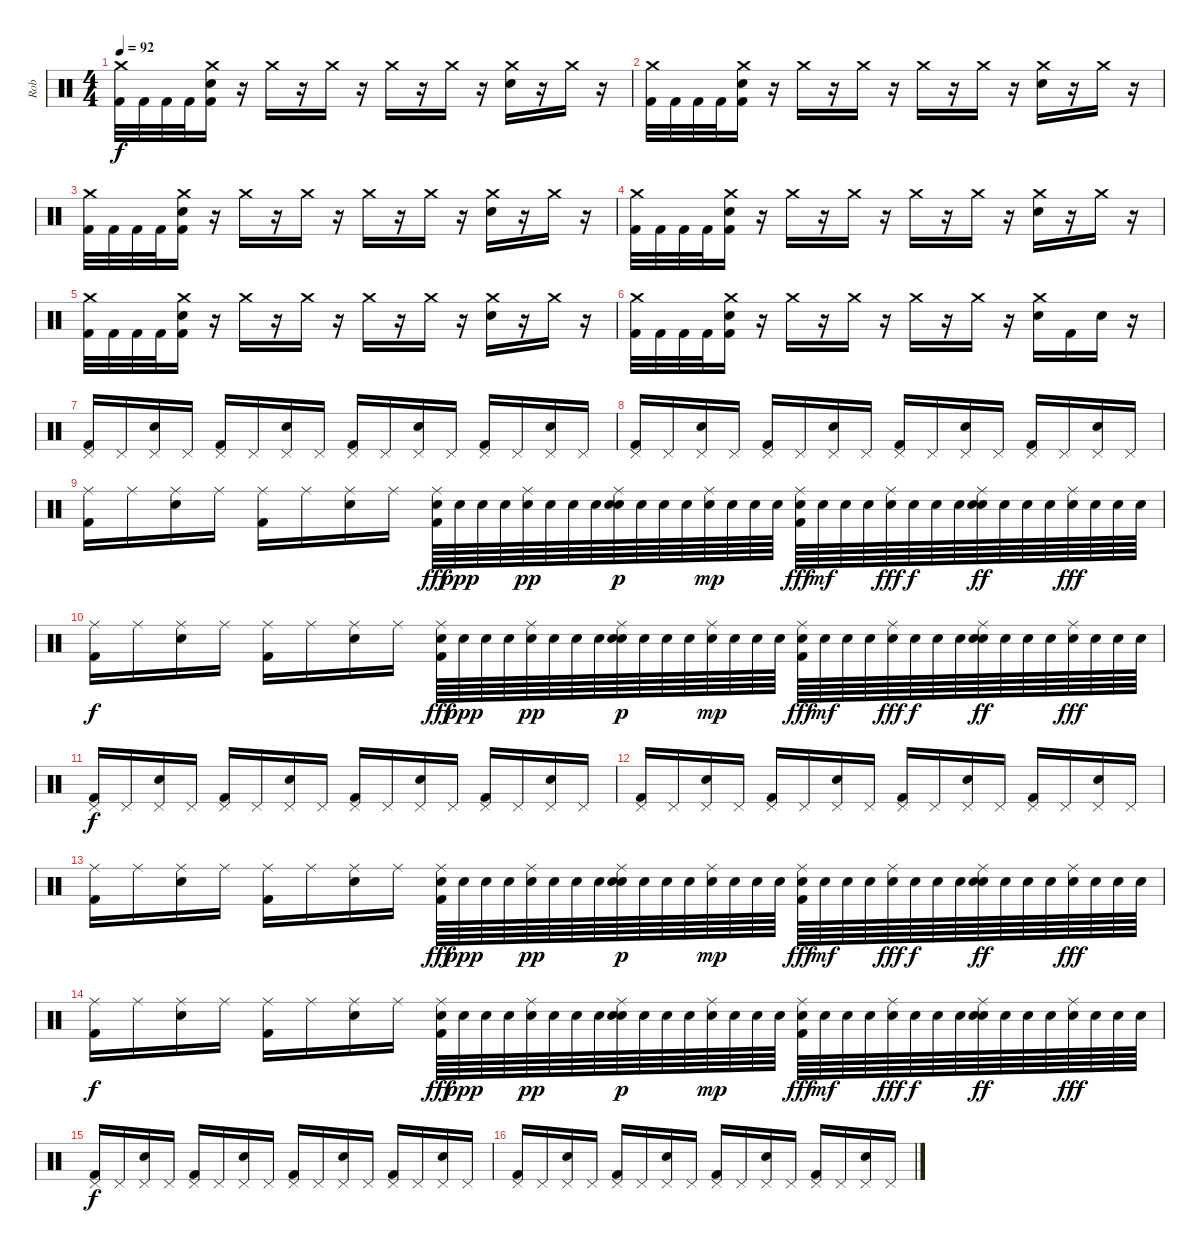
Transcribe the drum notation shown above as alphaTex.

\track ("Rob" "Rob") {instrument percussion}
\staff {score}
\articulation defaults
\ts (4 4)
\tempo 92
\clef neutral
\ks c
("Crash medium (hit)" "Kick (hit) 2").32{dy f} "Kick (hit) 2".32 "Kick (hit) 2".32 "Kick (hit) 2".32 ("Crash medium (hit)" "Electric Snare (hit)" "Kick (hit) 2").16 r.16 "Crash medium (hit)".16 r.16 "Crash medium (hit)".16 r.16 "Crash medium (hit)".16 r.16 "Crash medium (hit)".16 r.16 ("Crash medium (hit)" "Electric Snare (hit)").16 r.16 "Crash medium (hit)".16 r.16 |
("Crash medium (hit)" "Kick (hit) 2").32 "Kick (hit) 2".32 "Kick (hit) 2".32 "Kick (hit) 2".32 ("Crash medium (hit)" "Electric Snare (hit)" "Kick (hit) 2").16 r.16 "Crash medium (hit)".16 r.16 "Crash medium (hit)".16 r.16 "Crash medium (hit)".16 r.16 "Crash medium (hit)".16 r.16 ("Crash medium (hit)" "Electric Snare (hit)").16 r.16 "Crash medium (hit)".16 r.16 |
("Crash medium (hit)" "Kick (hit) 2").32 "Kick (hit) 2".32 "Kick (hit) 2".32 "Kick (hit) 2".32 ("Crash medium (hit)" "Electric Snare (hit)" "Kick (hit) 2").16 r.16 "Crash medium (hit)".16 r.16 "Crash medium (hit)".16 r.16 "Crash medium (hit)".16 r.16 "Crash medium (hit)".16 r.16 ("Crash medium (hit)" "Electric Snare (hit)").16 r.16 "Crash medium (hit)".16 r.16 |
("Crash medium (hit)" "Kick (hit) 2").32 "Kick (hit) 2".32 "Kick (hit) 2".32 "Kick (hit) 2".32 ("Crash medium (hit)" "Electric Snare (hit)" "Kick (hit) 2").16 r.16 "Crash medium (hit)".16 r.16 "Crash medium (hit)".16 r.16 "Crash medium (hit)".16 r.16 "Crash medium (hit)".16 r.16 ("Crash medium (hit)" "Electric Snare (hit)").16 r.16 "Crash medium (hit)".16 r.16 |
("Crash medium (hit)" "Kick (hit) 2").32 "Kick (hit) 2".32 "Kick (hit) 2".32 "Kick (hit) 2".32 ("Crash medium (hit)" "Electric Snare (hit)" "Kick (hit) 2").16 r.16 "Crash medium (hit)".16 r.16 "Crash medium (hit)".16 r.16 "Crash medium (hit)".16 r.16 "Crash medium (hit)".16 r.16 ("Crash medium (hit)" "Electric Snare (hit)").16 r.16 "Crash medium (hit)".16 r.16 |
("Crash medium (hit)" "Kick (hit) 2").32 "Kick (hit) 2".32 "Kick (hit) 2".32 "Kick (hit) 2".32 ("Crash medium (hit)" "Electric Snare (hit)" "Kick (hit) 2").16 r.16 "Crash medium (hit)".16 r.16 "Crash medium (hit)".16 r.16 "Crash medium (hit)".16 r.16 "Crash medium (hit)".16 r.16 ("Crash medium (hit)" "Electric Snare (hit)").16 "Kick (hit) 2".16 "Electric Snare (hit)".16 r.16 |
("Pedal Hi-Hat (hit)" "Kick (hit) 2").16 "Pedal Hi-Hat (hit)".16 ("Pedal Hi-Hat (hit)" "Electric Snare (hit)").16 "Pedal Hi-Hat (hit)".16 ("Pedal Hi-Hat (hit)" "Kick (hit) 2").16 "Pedal Hi-Hat (hit)".16 ("Pedal Hi-Hat (hit)" "Electric Snare (hit)").16 "Pedal Hi-Hat (hit)".16 ("Pedal Hi-Hat (hit)" "Kick (hit) 2").16 "Pedal Hi-Hat (hit)".16 ("Pedal Hi-Hat (hit)" "Electric Snare (hit)").16 "Pedal Hi-Hat (hit)".16 ("Pedal Hi-Hat (hit)" "Kick (hit) 2").16 "Pedal Hi-Hat (hit)".16 ("Pedal Hi-Hat (hit)" "Electric Snare (hit)").16 "Pedal Hi-Hat (hit)".16 |
("Pedal Hi-Hat (hit)" "Kick (hit) 2").16 "Pedal Hi-Hat (hit)".16 ("Pedal Hi-Hat (hit)" "Electric Snare (hit)").16 "Pedal Hi-Hat (hit)".16 ("Pedal Hi-Hat (hit)" "Kick (hit) 2").16 "Pedal Hi-Hat (hit)".16 ("Pedal Hi-Hat (hit)" "Electric Snare (hit)").16 "Pedal Hi-Hat (hit)".16 ("Pedal Hi-Hat (hit)" "Kick (hit) 2").16 "Pedal Hi-Hat (hit)".16 ("Pedal Hi-Hat (hit)" "Electric Snare (hit)").16 "Pedal Hi-Hat (hit)".16 ("Pedal Hi-Hat (hit)" "Kick (hit) 2").16 "Pedal Hi-Hat (hit)".16 ("Pedal Hi-Hat (hit)" "Electric Snare (hit)").16 "Pedal Hi-Hat (hit)".16 |
("Ride (middle)" "Kick (hit) 2").16 "Ride (middle)".16 ("Ride (middle)" "Electric Snare (hit)").16 "Ride (middle)".16 ("Ride (middle)" "Kick (hit) 2").16 "Ride (middle)".16 ("Ride (middle)" "Electric Snare (hit)").16 "Ride (middle)".16 ("Ride (middle)" "Electric Snare (hit)" "Kick (hit) 2").64{dy fff} "Electric Snare (hit)".64{dy ppp} "Electric Snare (hit)".64 "Electric Snare (hit)".64 ("Ride (middle)" "Electric Snare (hit)").64{dy pp} "Electric Snare (hit)".64 "Electric Snare (hit)".64 "Electric Snare (hit)".64 ("Ride (middle)" "Electric Snare (hit)" "Electric Snare (hit)").64{dy p} "Electric Snare (hit)".64 "Electric Snare (hit)".64 "Electric Snare (hit)".64 ("Ride (middle)" "Electric Snare (hit)").64{dy mp} "Electric Snare (hit)".64 "Electric Snare (hit)".64 "Electric Snare (hit)".64 ("Ride (middle)" "Electric Snare (hit)" "Kick (hit) 2").64{dy fff} "Electric Snare (hit)".64{dy mf} "Electric Snare (hit)".64 "Electric Snare (hit)".64 ("Ride (middle)" "Electric Snare (hit)").64{dy fff} "Electric Snare (hit)".64{dy f} "Electric Snare (hit)".64 "Electric Snare (hit)".64 ("Ride (middle)" "Electric Snare (hit)" "Electric Snare (hit)").64{dy ff} "Electric Snare (hit)".64 "Electric Snare (hit)".64 "Electric Snare (hit)".64 ("Ride (middle)" "Electric Snare (hit)").64{dy fff} "Electric Snare (hit)".64 "Electric Snare (hit)".64 "Electric Snare (hit)".64 |
("Ride (middle)" "Kick (hit) 2").16{dy f} "Ride (middle)".16 ("Ride (middle)" "Electric Snare (hit)").16 "Ride (middle)".16 ("Ride (middle)" "Kick (hit) 2").16 "Ride (middle)".16 ("Ride (middle)" "Electric Snare (hit)").16 "Ride (middle)".16 ("Ride (middle)" "Electric Snare (hit)" "Kick (hit) 2").64{dy fff} "Electric Snare (hit)".64{dy ppp} "Electric Snare (hit)".64 "Electric Snare (hit)".64 ("Ride (middle)" "Electric Snare (hit)").64{dy pp} "Electric Snare (hit)".64 "Electric Snare (hit)".64 "Electric Snare (hit)".64 ("Ride (middle)" "Electric Snare (hit)" "Electric Snare (hit)").64{dy p} "Electric Snare (hit)".64 "Electric Snare (hit)".64 "Electric Snare (hit)".64 ("Ride (middle)" "Electric Snare (hit)").64{dy mp} "Electric Snare (hit)".64 "Electric Snare (hit)".64 "Electric Snare (hit)".64 ("Ride (middle)" "Electric Snare (hit)" "Kick (hit) 2").64{dy fff} "Electric Snare (hit)".64{dy mf} "Electric Snare (hit)".64 "Electric Snare (hit)".64 ("Ride (middle)" "Electric Snare (hit)").64{dy fff} "Electric Snare (hit)".64{dy f} "Electric Snare (hit)".64 "Electric Snare (hit)".64 ("Ride (middle)" "Electric Snare (hit)" "Electric Snare (hit)").64{dy ff} "Electric Snare (hit)".64 "Electric Snare (hit)".64 "Electric Snare (hit)".64 ("Ride (middle)" "Electric Snare (hit)").64{dy fff} "Electric Snare (hit)".64 "Electric Snare (hit)".64 "Electric Snare (hit)".64 |
("Pedal Hi-Hat (hit)" "Kick (hit) 2").16{dy f} "Pedal Hi-Hat (hit)".16 ("Pedal Hi-Hat (hit)" "Electric Snare (hit)").16 "Pedal Hi-Hat (hit)".16 ("Pedal Hi-Hat (hit)" "Kick (hit) 2").16 "Pedal Hi-Hat (hit)".16 ("Pedal Hi-Hat (hit)" "Electric Snare (hit)").16 "Pedal Hi-Hat (hit)".16 ("Pedal Hi-Hat (hit)" "Kick (hit) 2").16 "Pedal Hi-Hat (hit)".16 ("Pedal Hi-Hat (hit)" "Electric Snare (hit)").16 "Pedal Hi-Hat (hit)".16 ("Pedal Hi-Hat (hit)" "Kick (hit) 2").16 "Pedal Hi-Hat (hit)".16 ("Pedal Hi-Hat (hit)" "Electric Snare (hit)").16 "Pedal Hi-Hat (hit)".16 |
("Pedal Hi-Hat (hit)" "Kick (hit) 2").16 "Pedal Hi-Hat (hit)".16 ("Pedal Hi-Hat (hit)" "Electric Snare (hit)").16 "Pedal Hi-Hat (hit)".16 ("Pedal Hi-Hat (hit)" "Kick (hit) 2").16 "Pedal Hi-Hat (hit)".16 ("Pedal Hi-Hat (hit)" "Electric Snare (hit)").16 "Pedal Hi-Hat (hit)".16 ("Pedal Hi-Hat (hit)" "Kick (hit) 2").16 "Pedal Hi-Hat (hit)".16 ("Pedal Hi-Hat (hit)" "Electric Snare (hit)").16 "Pedal Hi-Hat (hit)".16 ("Pedal Hi-Hat (hit)" "Kick (hit) 2").16 "Pedal Hi-Hat (hit)".16 ("Pedal Hi-Hat (hit)" "Electric Snare (hit)").16 "Pedal Hi-Hat (hit)".16 |
("Ride (middle)" "Kick (hit) 2").16 "Ride (middle)".16 ("Ride (middle)" "Electric Snare (hit)").16 "Ride (middle)".16 ("Ride (middle)" "Kick (hit) 2").16 "Ride (middle)".16 ("Ride (middle)" "Electric Snare (hit)").16 "Ride (middle)".16 ("Ride (middle)" "Electric Snare (hit)" "Kick (hit) 2").64{dy fff} "Electric Snare (hit)".64{dy ppp} "Electric Snare (hit)".64 "Electric Snare (hit)".64 ("Ride (middle)" "Electric Snare (hit)").64{dy pp} "Electric Snare (hit)".64 "Electric Snare (hit)".64 "Electric Snare (hit)".64 ("Ride (middle)" "Electric Snare (hit)" "Electric Snare (hit)").64{dy p} "Electric Snare (hit)".64 "Electric Snare (hit)".64 "Electric Snare (hit)".64 ("Ride (middle)" "Electric Snare (hit)").64{dy mp} "Electric Snare (hit)".64 "Electric Snare (hit)".64 "Electric Snare (hit)".64 ("Ride (middle)" "Electric Snare (hit)" "Kick (hit) 2").64{dy fff} "Electric Snare (hit)".64{dy mf} "Electric Snare (hit)".64 "Electric Snare (hit)".64 ("Ride (middle)" "Electric Snare (hit)").64{dy fff} "Electric Snare (hit)".64{dy f} "Electric Snare (hit)".64 "Electric Snare (hit)".64 ("Ride (middle)" "Electric Snare (hit)" "Electric Snare (hit)").64{dy ff} "Electric Snare (hit)".64 "Electric Snare (hit)".64 "Electric Snare (hit)".64 ("Ride (middle)" "Electric Snare (hit)").64{dy fff} "Electric Snare (hit)".64 "Electric Snare (hit)".64 "Electric Snare (hit)".64 |
("Ride (middle)" "Kick (hit) 2").16{dy f} "Ride (middle)".16 ("Ride (middle)" "Electric Snare (hit)").16 "Ride (middle)".16 ("Ride (middle)" "Kick (hit) 2").16 "Ride (middle)".16 ("Ride (middle)" "Electric Snare (hit)").16 "Ride (middle)".16 ("Ride (middle)" "Electric Snare (hit)" "Kick (hit) 2").64{dy fff} "Electric Snare (hit)".64{dy ppp} "Electric Snare (hit)".64 "Electric Snare (hit)".64 ("Ride (middle)" "Electric Snare (hit)").64{dy pp} "Electric Snare (hit)".64 "Electric Snare (hit)".64 "Electric Snare (hit)".64 ("Ride (middle)" "Electric Snare (hit)" "Electric Snare (hit)").64{dy p} "Electric Snare (hit)".64 "Electric Snare (hit)".64 "Electric Snare (hit)".64 ("Ride (middle)" "Electric Snare (hit)").64{dy mp} "Electric Snare (hit)".64 "Electric Snare (hit)".64 "Electric Snare (hit)".64 ("Ride (middle)" "Electric Snare (hit)" "Kick (hit) 2").64{dy fff} "Electric Snare (hit)".64{dy mf} "Electric Snare (hit)".64 "Electric Snare (hit)".64 ("Ride (middle)" "Electric Snare (hit)").64{dy fff} "Electric Snare (hit)".64{dy f} "Electric Snare (hit)".64 "Electric Snare (hit)".64 ("Ride (middle)" "Electric Snare (hit)" "Electric Snare (hit)").64{dy ff} "Electric Snare (hit)".64 "Electric Snare (hit)".64 "Electric Snare (hit)".64 ("Ride (middle)" "Electric Snare (hit)").64{dy fff} "Electric Snare (hit)".64 "Electric Snare (hit)".64 "Electric Snare (hit)".64 |
("Pedal Hi-Hat (hit)" "Kick (hit) 2").16{dy f} "Pedal Hi-Hat (hit)".16 ("Pedal Hi-Hat (hit)" "Electric Snare (hit)").16 "Pedal Hi-Hat (hit)".16 ("Pedal Hi-Hat (hit)" "Kick (hit) 2").16 "Pedal Hi-Hat (hit)".16 ("Pedal Hi-Hat (hit)" "Electric Snare (hit)").16 "Pedal Hi-Hat (hit)".16 ("Pedal Hi-Hat (hit)" "Kick (hit) 2").16 "Pedal Hi-Hat (hit)".16 ("Pedal Hi-Hat (hit)" "Electric Snare (hit)").16 "Pedal Hi-Hat (hit)".16 ("Pedal Hi-Hat (hit)" "Kick (hit) 2").16 "Pedal Hi-Hat (hit)".16 ("Pedal Hi-Hat (hit)" "Electric Snare (hit)").16 "Pedal Hi-Hat (hit)".16 |
("Pedal Hi-Hat (hit)" "Kick (hit) 2").16 "Pedal Hi-Hat (hit)".16 ("Pedal Hi-Hat (hit)" "Electric Snare (hit)").16 "Pedal Hi-Hat (hit)".16 ("Pedal Hi-Hat (hit)" "Kick (hit) 2").16 "Pedal Hi-Hat (hit)".16 ("Pedal Hi-Hat (hit)" "Electric Snare (hit)").16 "Pedal Hi-Hat (hit)".16 ("Pedal Hi-Hat (hit)" "Kick (hit) 2").16 "Pedal Hi-Hat (hit)".16 ("Pedal Hi-Hat (hit)" "Electric Snare (hit)").16 "Pedal Hi-Hat (hit)".16 ("Pedal Hi-Hat (hit)" "Kick (hit) 2").16 "Pedal Hi-Hat (hit)".16 ("Pedal Hi-Hat (hit)" "Electric Snare (hit)").16 "Pedal Hi-Hat (hit)".16
